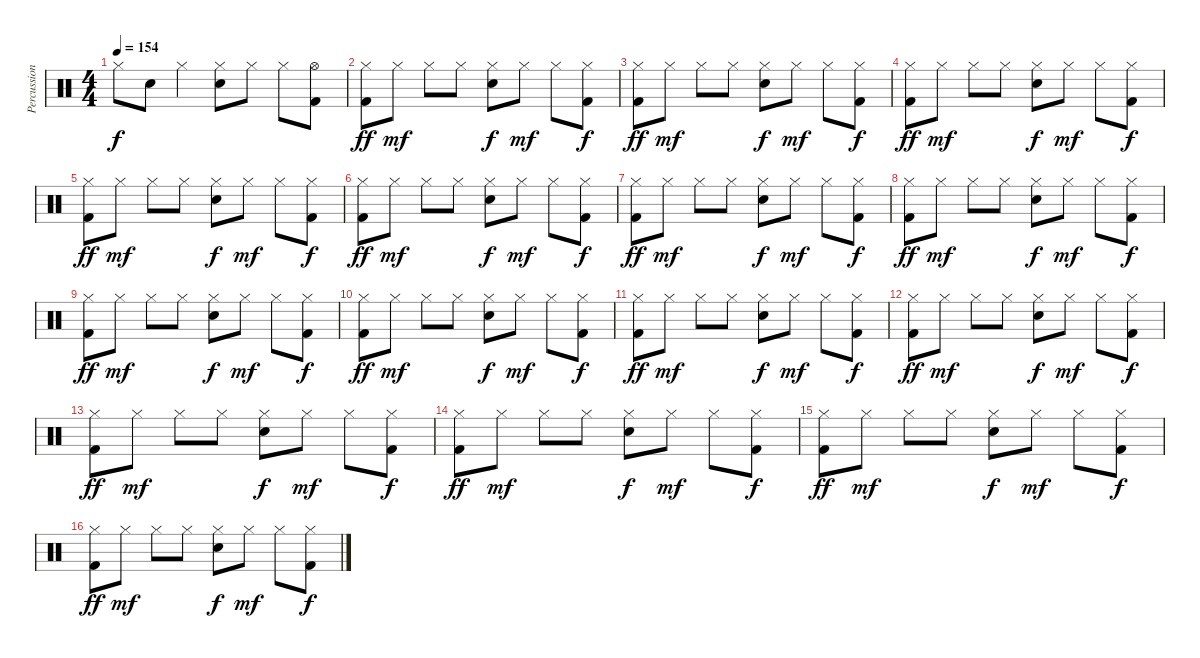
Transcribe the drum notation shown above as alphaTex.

\track ("Percussions" "Percussion") {instrument percussion}
\staff {score}
\articulation defaults
\ts (4 4)
\tempo 154
\clef neutral
\ks c "Hi-Hat (closed)".8{dy f} "Electric Snare (hit)".8 "Hi-Hat (closed)".4
("Hi-Hat (closed)" "Electric Snare (hit)").8 "Hi-Hat (closed)".8 "Hi-Hat (closed)".8 ("Hi-Hat (open)" "Kick (hit) 2").8 |
("Hi-Hat (closed)" "Kick (hit) 2").8{dy ff} "Hi-Hat (closed)".8{dy mf} "Hi-Hat (closed)".8 "Hi-Hat (closed)".8 ("Hi-Hat (closed)" "Electric Snare (hit)").8{dy f} "Hi-Hat (closed)".8{dy mf} "Hi-Hat (closed)".8 ("Hi-Hat (closed)" "Kick (hit) 2").8{dy f} |
("Hi-Hat (closed)" "Kick (hit) 2").8{dy ff} "Hi-Hat (closed)".8{dy mf} "Hi-Hat (closed)".8 "Hi-Hat (closed)".8 ("Hi-Hat (closed)" "Electric Snare (hit)").8{dy f} "Hi-Hat (closed)".8{dy mf} "Hi-Hat (closed)".8 ("Hi-Hat (closed)" "Kick (hit) 2").8{dy f} |
("Hi-Hat (closed)" "Kick (hit) 2").8{dy ff} "Hi-Hat (closed)".8{dy mf} "Hi-Hat (closed)".8 "Hi-Hat (closed)".8 ("Hi-Hat (closed)" "Electric Snare (hit)").8{dy f} "Hi-Hat (closed)".8{dy mf} "Hi-Hat (closed)".8 ("Hi-Hat (closed)" "Kick (hit) 2").8{dy f} |
("Hi-Hat (closed)" "Kick (hit) 2").8{dy ff} "Hi-Hat (closed)".8{dy mf} "Hi-Hat (closed)".8 "Hi-Hat (closed)".8 ("Hi-Hat (closed)" "Electric Snare (hit)").8{dy f} "Hi-Hat (closed)".8{dy mf} "Hi-Hat (closed)".8 ("Hi-Hat (closed)" "Kick (hit) 2").8{dy f} |
("Hi-Hat (closed)" "Kick (hit) 2").8{dy ff} "Hi-Hat (closed)".8{dy mf} "Hi-Hat (closed)".8 "Hi-Hat (closed)".8 ("Hi-Hat (closed)" "Electric Snare (hit)").8{dy f} "Hi-Hat (closed)".8{dy mf} "Hi-Hat (closed)".8 ("Hi-Hat (closed)" "Kick (hit) 2").8{dy f} |
("Hi-Hat (closed)" "Kick (hit) 2").8{dy ff} "Hi-Hat (closed)".8{dy mf} "Hi-Hat (closed)".8 "Hi-Hat (closed)".8 ("Hi-Hat (closed)" "Electric Snare (hit)").8{dy f} "Hi-Hat (closed)".8{dy mf} "Hi-Hat (closed)".8 ("Hi-Hat (closed)" "Kick (hit) 2").8{dy f} |
("Hi-Hat (closed)" "Kick (hit) 2").8{dy ff} "Hi-Hat (closed)".8{dy mf} "Hi-Hat (closed)".8 "Hi-Hat (closed)".8 ("Hi-Hat (closed)" "Electric Snare (hit)").8{dy f} "Hi-Hat (closed)".8{dy mf} "Hi-Hat (closed)".8 ("Hi-Hat (closed)" "Kick (hit) 2").8{dy f} |
("Hi-Hat (closed)" "Kick (hit) 2").8{dy ff} "Hi-Hat (closed)".8{dy mf} "Hi-Hat (closed)".8 "Hi-Hat (closed)".8 ("Hi-Hat (closed)" "Electric Snare (hit)").8{dy f} "Hi-Hat (closed)".8{dy mf} "Hi-Hat (closed)".8 ("Hi-Hat (closed)" "Kick (hit) 2").8{dy f} |
("Hi-Hat (closed)" "Kick (hit) 2").8{dy ff} "Hi-Hat (closed)".8{dy mf} "Hi-Hat (closed)".8 "Hi-Hat (closed)".8 ("Hi-Hat (closed)" "Electric Snare (hit)").8{dy f} "Hi-Hat (closed)".8{dy mf} "Hi-Hat (closed)".8 ("Hi-Hat (closed)" "Kick (hit) 2").8{dy f} |
("Hi-Hat (closed)" "Kick (hit) 2").8{dy ff} "Hi-Hat (closed)".8{dy mf} "Hi-Hat (closed)".8 "Hi-Hat (closed)".8 ("Hi-Hat (closed)" "Electric Snare (hit)").8{dy f} "Hi-Hat (closed)".8{dy mf} "Hi-Hat (closed)".8 ("Hi-Hat (closed)" "Kick (hit) 2").8{dy f} |
("Hi-Hat (closed)" "Kick (hit) 2").8{dy ff} "Hi-Hat (closed)".8{dy mf} "Hi-Hat (closed)".8 "Hi-Hat (closed)".8 ("Hi-Hat (closed)" "Electric Snare (hit)").8{dy f} "Hi-Hat (closed)".8{dy mf} "Hi-Hat (closed)".8 ("Hi-Hat (closed)" "Kick (hit) 2").8{dy f} |
("Hi-Hat (closed)" "Kick (hit) 2").8{dy ff} "Hi-Hat (closed)".8{dy mf} "Hi-Hat (closed)".8 "Hi-Hat (closed)".8 ("Hi-Hat (closed)" "Electric Snare (hit)").8{dy f} "Hi-Hat (closed)".8{dy mf} "Hi-Hat (closed)".8 ("Hi-Hat (closed)" "Kick (hit) 2").8{dy f} |
("Hi-Hat (closed)" "Kick (hit) 2").8{dy ff} "Hi-Hat (closed)".8{dy mf} "Hi-Hat (closed)".8 "Hi-Hat (closed)".8 ("Hi-Hat (closed)" "Electric Snare (hit)").8{dy f} "Hi-Hat (closed)".8{dy mf} "Hi-Hat (closed)".8 ("Hi-Hat (closed)" "Kick (hit) 2").8{dy f} |
("Hi-Hat (closed)" "Kick (hit) 2").8{dy ff} "Hi-Hat (closed)".8{dy mf} "Hi-Hat (closed)".8 "Hi-Hat (closed)".8 ("Hi-Hat (closed)" "Electric Snare (hit)").8{dy f} "Hi-Hat (closed)".8{dy mf} "Hi-Hat (closed)".8 ("Hi-Hat (closed)" "Kick (hit) 2").8{dy f} |
("Hi-Hat (closed)" "Kick (hit) 2").8{dy ff} "Hi-Hat (closed)".8{dy mf} "Hi-Hat (closed)".8 "Hi-Hat (closed)".8 ("Hi-Hat (closed)" "Electric Snare (hit)").8{dy f} "Hi-Hat (closed)".8{dy mf} "Hi-Hat (closed)".8 ("Hi-Hat (closed)" "Kick (hit) 2").8{dy f}
